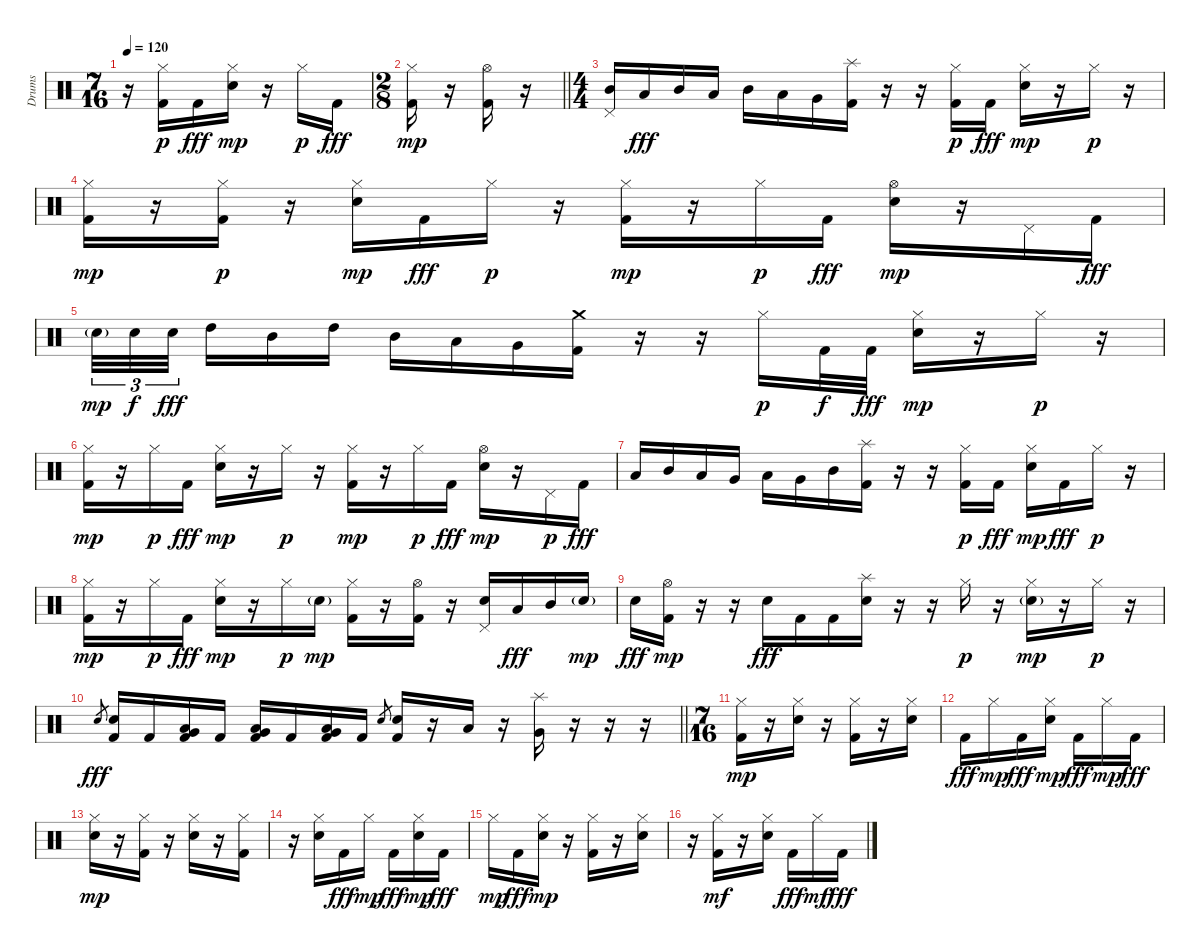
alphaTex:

\track ("Drums" "Drums") {instrument percussion}
\staff {score}
\articulation defaults
\ts (7 16)
\tempo 120
\clef neutral
\ks c
r.16{dy mp} ("Kick (hit) 2" "Hi-Hat (closed)").16{dy p} "Kick (hit) 2".16{dy fff} ("Electric Snare (hit)" "Hi-Hat (closed)").16{dy mp} r.16 "Hi-Hat (closed)".16{dy p} "Kick (hit) 2".16{dy fff} |
\ts (2 8)
\barLineRight lightlight
("Kick (hit) 2" "Hi-Hat (closed)").16{dy mp} r.16 ("Kick (hit) 2" "Hi-Hat (open)").16 r.16 |
\ts (4 4)
("Mid Tom (hit)" "Pedal Hi-Hat (hit)").16 "Low Tom (hit)".16{dy fff} "Mid Tom (hit)".16 "Low Tom (hit)".16 "Mid Tom (hit)".16 "Low Tom (hit)".16 "Very Low Tom (hit)".16 ("Kick (hit) 2" "Splash (hit)").16 r.16 r.16 ("Kick (hit) 2" "Hi-Hat (closed)").16{dy p} "Kick (hit) 2".16{dy fff} ("Electric Snare (hit)" "Hi-Hat (closed)").16{dy mp} r.16 "Hi-Hat (closed)".16{dy p} r.16 |
("Kick (hit) 2" "Hi-Hat (closed)").16{dy mp} r.16 ("Kick (hit) 2" "Hi-Hat (closed)").16{dy p} r.16 ("Electric Snare (hit)" "Hi-Hat (closed)").16{dy mp} "Kick (hit) 2".16{dy fff} "Hi-Hat (closed)".16{dy p} r.16 ("Kick (hit) 2" "Hi-Hat (closed)").16{dy mp} r.16 "Hi-Hat (closed)".16{dy p} "Kick (hit) 2".16{dy fff} ("Electric Snare (hit)" "Hi-Hat (open)").16{dy mp} r.16 "Pedal Hi-Hat (hit)".16 "Kick (hit) 2".16{dy fff} |
"Electric Snare (hit)"{g}.32{tu (3 2) dy mp} "Electric Snare (hit)".32{tu (3 2) dy f} "Electric Snare (hit)".32{tu (3 2) dy fff beam splitsecondary} "High Tom (hit)".16 "Mid Tom (hit)".16 "High Tom (hit)".16 "Mid Tom (hit)".16 "Low Tom (hit)".16 "Very Low Tom (hit)".16 ("Kick (hit) 2" "Crash medium (hit)").16 r.16 r.16 "Hi-Hat (closed)".16{dy p} "Kick (hit) 2".32{dy f} "Kick (hit) 2".32{dy fff} ("Electric Snare (hit)" "Hi-Hat (closed)").16{dy mp} r.16 "Hi-Hat (closed)".16{dy p} r.16 |
("Kick (hit) 2" "Hi-Hat (closed)").16{dy mp} r.16 "Hi-Hat (closed)".16{dy p} "Kick (hit) 2".16{dy fff} ("Electric Snare (hit)" "Hi-Hat (closed)").16{dy mp} r.16 "Hi-Hat (closed)".16{dy p} r.16 ("Kick (hit) 2" "Hi-Hat (closed)").16{dy mp} r.16 "Hi-Hat (closed)".16{dy p} "Kick (hit) 2".16{dy fff} ("Electric Snare (hit)" "Hi-Hat (open)").16{dy mp} r.16 "Pedal Hi-Hat (hit)".16{dy p} "Kick (hit) 2".16{dy fff} |
"Low Tom (hit)".16 "Mid Tom (hit)".16 "Low Tom (hit)".16 "Very Low Tom (hit)".16 "Low Tom (hit)".16 "Very Low Tom (hit)".16 "Mid Tom (hit)".16 ("Kick (hit) 2" "Splash (hit)").16 r.16 r.16 ("Kick (hit) 2" "Hi-Hat (closed)").16{dy p} "Kick (hit) 2".16{dy fff} ("Electric Snare (hit)" "Hi-Hat (closed)").16{dy mp} "Kick (hit) 2".16{dy fff} "Hi-Hat (closed)".16{dy p} r.16 |
("Kick (hit) 2" "Hi-Hat (closed)").16{dy mp} r.16 "Hi-Hat (closed)".16{dy p} "Kick (hit) 2".16{dy fff} ("Electric Snare (hit)" "Hi-Hat (closed)").16{dy mp} r.16 "Hi-Hat (closed)".16{dy p} "Electric Snare (hit)"{g}.16{dy mp} ("Kick (hit) 2" "Hi-Hat (closed)").16 r.16 ("Kick (hit) 2" "Hi-Hat (open)").16 r.16 ("Electric Snare (hit)" "Pedal Hi-Hat (hit)").16 "Low Tom (hit)".16{dy fff} "Mid Tom (hit)".16 "Electric Snare (hit)"{g}.16{dy mp} |
"Electric Snare (hit)".16{dy fff} ("Kick (hit) 2" "Hi-Hat (open)").16{dy mp} r.16 r.16 "Electric Snare (hit)".16{dy fff} "Kick (hit) 2".16 "Kick (hit) 2".16 ("Electric Snare (hit)" "Splash (hit)").16 r.16 r.16 "Hi-Hat (closed)".16{dy p} r.16 ("Electric Snare (hit)"{g} "Hi-Hat (closed)").16{dy mp} r.16 "Hi-Hat (closed)".16{dy p} r.16 |
\barLineRight lightlight "Electric Snare (hit)".8{gr dy fff}
("Kick (hit) 2" "Electric Snare (hit)").16 "Kick (hit) 2".16 ("Kick (hit) 2" "Low Floor Tom (hit)" "Very Low Tom (hit)").16 "Kick (hit) 2".16 ("Kick (hit) 2" "Low Floor Tom (hit)" "Very Low Tom (hit)").16 "Kick (hit) 2".16 ("Kick (hit) 2" "Low Floor Tom (hit)" "Very Low Tom (hit)").16 "Kick (hit) 2".16 "Electric Snare (hit)".8{gr} ("Kick (hit) 2" "Electric Snare (hit)").16 r.16 "Low Tom (hit)".16 r.16 ("Very Low Tom (hit)" "Splash (hit)").16 r.16 r.16 r.16 |
\ts (7 16)
("Kick (hit) 2" "Hi-Hat (closed)").16{dy mp} r.16 ("Electric Snare (hit)" "Hi-Hat (closed)").16 r.16 ("Kick (hit) 2" "Hi-Hat (closed)").16 r.16 ("Electric Snare (hit)" "Hi-Hat (closed)").16 |
"Kick (hit) 2".16{dy fff} "Hi-Hat (closed)".16{dy mp} "Kick (hit) 2".16{dy fff} ("Electric Snare (hit)" "Hi-Hat (closed)").16{dy mp} "Kick (hit) 2".16{dy fff} "Hi-Hat (closed)".16{dy mp} "Kick (hit) 2".16{dy fff} |
("Electric Snare (hit)" "Hi-Hat (closed)").16{dy mp} r.16 ("Kick (hit) 2" "Hi-Hat (closed)").16 r.16 ("Electric Snare (hit)" "Hi-Hat (closed)").16 r.16 ("Kick (hit) 2" "Hi-Hat (closed)").16 |
r.16 ("Electric Snare (hit)" "Hi-Hat (closed)").16 "Kick (hit) 2".16{dy fff} "Hi-Hat (closed)".16{dy mp} "Kick (hit) 2".16{dy fff} ("Electric Snare (hit)" "Hi-Hat (closed)").16{dy mp} "Kick (hit) 2".16{dy fff} |
"Hi-Hat (closed)".16{dy mp} "Kick (hit) 2".16{dy fff} ("Electric Snare (hit)" "Hi-Hat (closed)").16{dy mp} r.16 ("Kick (hit) 2" "Hi-Hat (closed)").16 r.16 ("Electric Snare (hit)" "Hi-Hat (closed)").16 |
r.16 ("Kick (hit) 2" "Hi-Hat (closed)").16{dy mf} r.16 ("Electric Snare (hit)" "Hi-Hat (closed)").16 "Kick (hit) 2".16{dy fff} "Hi-Hat (closed)".16{dy mf} "Kick (hit) 2".16{dy fff}
